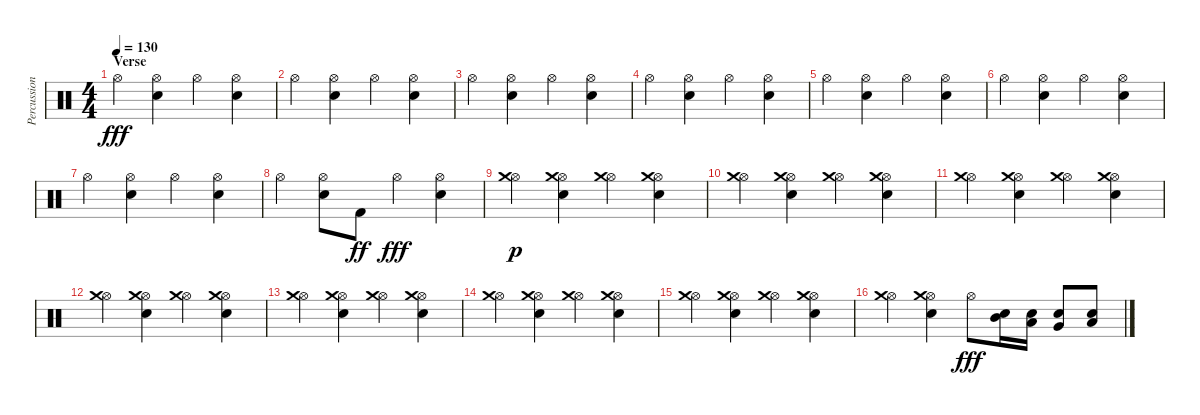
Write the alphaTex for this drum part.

\track ("Percussion" "Percussion") {instrument percussion}
\staff {score}
\articulation defaults
\ts (4 4)
\section ("" "Verse")
\tempo 130
\clef neutral
\ks c "Hi-Hat (open)".4{dy fff}
("Hi-Hat (open)" "Snare (hit) 2").4 "Hi-Hat (open)".4 ("Hi-Hat (open)" "Snare (hit) 2").4 |
"Hi-Hat (open)".4 ("Hi-Hat (open)" "Snare (hit) 2").4 "Hi-Hat (open)".4 ("Hi-Hat (open)" "Snare (hit) 2").4 |
"Hi-Hat (open)".4 ("Hi-Hat (open)" "Snare (hit) 2").4 "Hi-Hat (open)".4 ("Hi-Hat (open)" "Snare (hit) 2").4 |
"Hi-Hat (open)".4 ("Hi-Hat (open)" "Snare (hit) 2").4 "Hi-Hat (open)".4 ("Hi-Hat (open)" "Snare (hit) 2").4 |
"Hi-Hat (open)".4 ("Hi-Hat (open)" "Snare (hit) 2").4 "Hi-Hat (open)".4 ("Hi-Hat (open)" "Snare (hit) 2").4 |
"Hi-Hat (open)".4 ("Hi-Hat (open)" "Snare (hit) 2").4 "Hi-Hat (open)".4 ("Hi-Hat (open)" "Snare (hit) 2").4 |
"Hi-Hat (open)".4 ("Hi-Hat (open)" "Snare (hit) 2").4 "Hi-Hat (open)".4 ("Hi-Hat (open)" "Snare (hit) 2").4 |
"Hi-Hat (open)".4 ("Hi-Hat (open)" "Snare (hit) 2").8 "Kick (hit) 2".8{dy ff} "Hi-Hat (open)".4{dy fff} ("Hi-Hat (open)" "Snare (hit) 2").4 |
("Hi-Hat (open)" "Crash medium (hit)").4{dy p} ("Hi-Hat (open)" "Snare (hit) 2" "Crash medium (hit)").4 ("Hi-Hat (open)" "Crash medium (hit)").4 ("Hi-Hat (open)" "Snare (hit) 2" "Crash medium (hit)").4 |
("Hi-Hat (open)" "Crash medium (hit)").4 ("Hi-Hat (open)" "Snare (hit) 2" "Crash medium (hit)").4 ("Hi-Hat (open)" "Crash medium (hit)").4 ("Hi-Hat (open)" "Snare (hit) 2" "Crash medium (hit)").4 |
("Hi-Hat (open)" "Crash medium (hit)").4 ("Hi-Hat (open)" "Snare (hit) 2" "Crash medium (hit)").4 ("Hi-Hat (open)" "Crash medium (hit)").4 ("Hi-Hat (open)" "Snare (hit) 2" "Crash medium (hit)").4 |
("Hi-Hat (open)" "Crash medium (hit)").4 ("Hi-Hat (open)" "Snare (hit) 2" "Crash medium (hit)").4 ("Hi-Hat (open)" "Crash medium (hit)").4 ("Hi-Hat (open)" "Snare (hit) 2" "Crash medium (hit)").4 |
("Hi-Hat (open)" "Crash medium (hit)").4 ("Hi-Hat (open)" "Snare (hit) 2" "Crash medium (hit)").4 ("Hi-Hat (open)" "Crash medium (hit)").4 ("Hi-Hat (open)" "Snare (hit) 2" "Crash medium (hit)").4 |
("Hi-Hat (open)" "Crash medium (hit)").4 ("Hi-Hat (open)" "Snare (hit) 2" "Crash medium (hit)").4 ("Hi-Hat (open)" "Crash medium (hit)").4 ("Hi-Hat (open)" "Snare (hit) 2" "Crash medium (hit)").4 |
("Hi-Hat (open)" "Crash medium (hit)").4 ("Hi-Hat (open)" "Snare (hit) 2" "Crash medium (hit)").4 ("Hi-Hat (open)" "Crash medium (hit)").4 ("Hi-Hat (open)" "Snare (hit) 2" "Crash medium (hit)").4 |
("Hi-Hat (open)" "Crash medium (hit)").4 ("Hi-Hat (open)" "Snare (hit) 2" "Crash medium (hit)").4 "Hi-Hat (open)".8{dy fff} ("Snare (hit) 2" "Mid Tom (hit)").16 ("Snare (hit) 2" "Low Tom (hit)").16 ("Snare (hit) 2" "Very Low Tom (hit)").8 ("Snare (hit) 2" "Low Floor Tom (hit)").8
